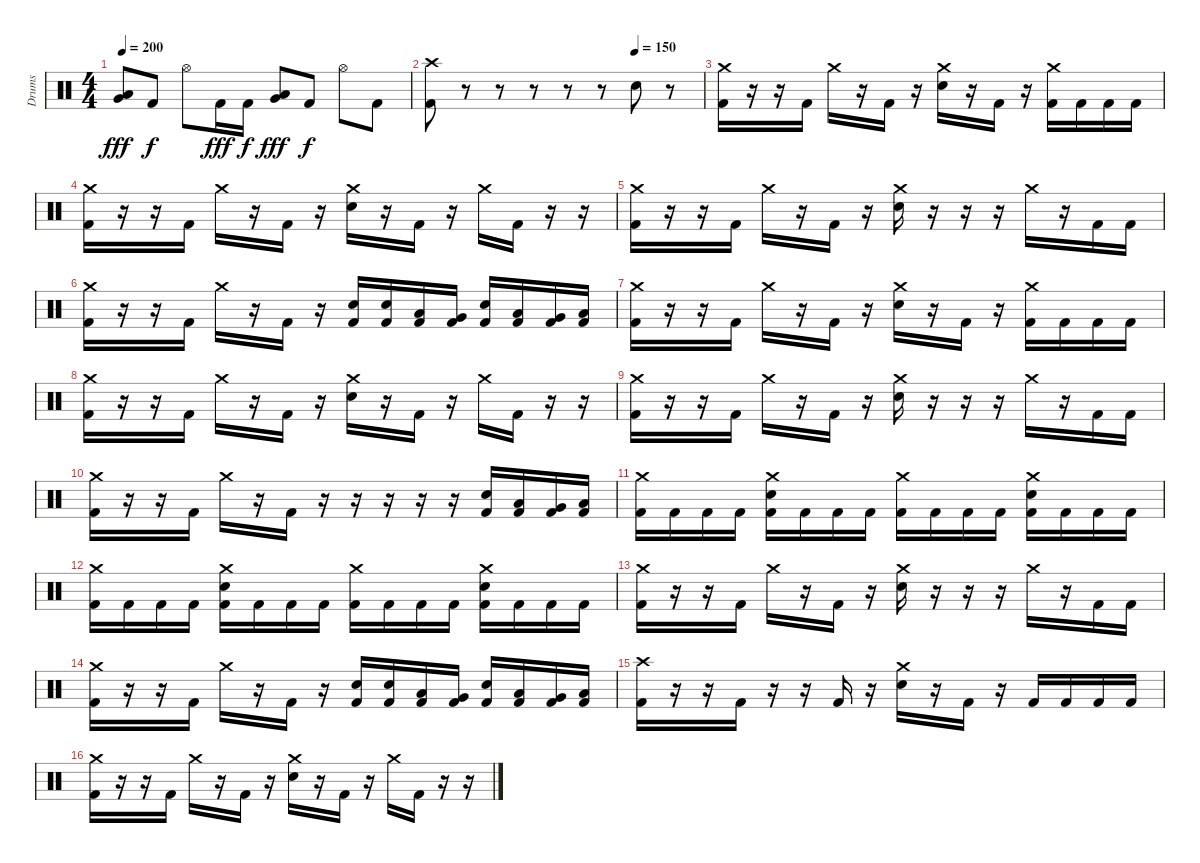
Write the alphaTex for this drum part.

\track ("Drums" "Drums") {instrument percussion}
\staff {score}
\articulation defaults
\ts (4 4)
\tempo 200
\clef neutral
\ks c
("Very Low Tom (hit)" "Low Floor Tom (hit)").8{dy fff} "Kick (hit) 2".8{dy f} "Hi-Hat (open)".8 "Kick (hit) 2".16{dy fff} "Kick (hit) 2".16{dy f} ("Very Low Tom (hit)" "Low Floor Tom (hit)").8{dy fff} "Kick (hit) 2".8{dy f} "Hi-Hat (open)".8 "Kick (hit) 2".8 |
\tempo (150 0.75)
("Crash high (hit)" "Kick (hit) 2").8 r.8 r.8 r.8 r.8 r.8 "Electric Snare (hit)".8 r.8 |
("Crash medium (hit)" "Kick (hit) 2").16 r.16 r.16 "Kick (hit) 2".16 "Crash medium (hit)".16 r.16 "Kick (hit) 2".16 r.16 ("Crash medium (hit)" "Electric Snare (hit)").16 r.16 "Kick (hit) 2".16 r.16 ("Crash medium (hit)" "Kick (hit) 2").16 "Kick (hit) 2".16 "Kick (hit) 2".16 "Kick (hit) 2".16 |
("Crash medium (hit)" "Kick (hit) 2").16 r.16 r.16 "Kick (hit) 2".16 "Crash medium (hit)".16 r.16 "Kick (hit) 2".16 r.16 ("Crash medium (hit)" "Electric Snare (hit)").16 r.16 "Kick (hit) 2".16 r.16 "Crash medium (hit)".16 "Kick (hit) 2".16 r.16 r.16 |
("Crash medium (hit)" "Kick (hit) 2").16 r.16 r.16 "Kick (hit) 2".16 "Crash medium (hit)".16 r.16 "Kick (hit) 2".16 r.16 ("Crash medium (hit)" "Electric Snare (hit)").16 r.16 r.16 r.16 "Crash medium (hit)".16 r.16 "Kick (hit) 2".16 "Kick (hit) 2".16 |
("Crash medium (hit)" "Kick (hit) 2").16 r.16 r.16 "Kick (hit) 2".16 "Crash medium (hit)".16 r.16 "Kick (hit) 2".16 r.16 ("Electric Snare (hit)" "Kick (hit) 2").16 ("Electric Snare (hit)" "Kick (hit) 2").16 ("Low Tom (hit)" "Kick (hit) 2").16 ("Very Low Tom (hit)" "Kick (hit) 2").16 ("Electric Snare (hit)" "Kick (hit) 2").16 ("Low Tom (hit)" "Kick (hit) 2").16 ("Very Low Tom (hit)" "Kick (hit) 2").16 ("Low Floor Tom (hit)" "Kick (hit) 2").16 |
("Crash medium (hit)" "Kick (hit) 2").16 r.16 r.16 "Kick (hit) 2".16 "Crash medium (hit)".16 r.16 "Kick (hit) 2".16 r.16 ("Crash medium (hit)" "Electric Snare (hit)").16 r.16 "Kick (hit) 2".16 r.16 ("Crash medium (hit)" "Kick (hit) 2").16 "Kick (hit) 2".16 "Kick (hit) 2".16 "Kick (hit) 2".16 |
("Crash medium (hit)" "Kick (hit) 2").16 r.16 r.16 "Kick (hit) 2".16 "Crash medium (hit)".16 r.16 "Kick (hit) 2".16 r.16 ("Crash medium (hit)" "Electric Snare (hit)").16 r.16 "Kick (hit) 2".16 r.16 "Crash medium (hit)".16 "Kick (hit) 2".16 r.16 r.16 |
("Crash medium (hit)" "Kick (hit) 2").16 r.16 r.16 "Kick (hit) 2".16 "Crash medium (hit)".16 r.16 "Kick (hit) 2".16 r.16 ("Crash medium (hit)" "Electric Snare (hit)").16 r.16 r.16 r.16 "Crash medium (hit)".16 r.16 "Kick (hit) 2".16 "Kick (hit) 2".16 |
("Crash medium (hit)" "Kick (hit) 2").16 r.16 r.16 "Kick (hit) 2".16 "Crash medium (hit)".16 r.16 "Kick (hit) 2".16 r.16 r.16 r.16 r.16 r.16 ("Electric Snare (hit)" "Kick (hit) 2").16 ("Low Tom (hit)" "Kick (hit) 2").16 ("Very Low Tom (hit)" "Kick (hit) 2").16 ("Low Floor Tom (hit)" "Kick (hit) 2").16 |
("Crash medium (hit)" "Kick (hit) 2").16 "Kick (hit) 2".16 "Kick (hit) 2".16 "Kick (hit) 2".16 ("Crash medium (hit)" "Electric Snare (hit)" "Kick (hit) 2").16 "Kick (hit) 2".16 "Kick (hit) 2".16 "Kick (hit) 2".16 ("Crash medium (hit)" "Kick (hit) 2").16 "Kick (hit) 2".16 "Kick (hit) 2".16 "Kick (hit) 2".16 ("Crash medium (hit)" "Electric Snare (hit)" "Kick (hit) 2").16 "Kick (hit) 2".16 "Kick (hit) 2".16 "Kick (hit) 2".16 |
("Crash medium (hit)" "Kick (hit) 2").16 "Kick (hit) 2".16 "Kick (hit) 2".16 "Kick (hit) 2".16 ("Crash medium (hit)" "Electric Snare (hit)" "Kick (hit) 2").16 "Kick (hit) 2".16 "Kick (hit) 2".16 "Kick (hit) 2".16 ("Crash medium (hit)" "Kick (hit) 2").16 "Kick (hit) 2".16 "Kick (hit) 2".16 "Kick (hit) 2".16 ("Crash medium (hit)" "Electric Snare (hit)" "Kick (hit) 2").16 "Kick (hit) 2".16 "Kick (hit) 2".16 "Kick (hit) 2".16 |
("Crash medium (hit)" "Kick (hit) 2").16 r.16 r.16 "Kick (hit) 2".16 "Crash medium (hit)".16 r.16 "Kick (hit) 2".16 r.16 ("Crash medium (hit)" "Electric Snare (hit)").16 r.16 r.16 r.16 "Crash medium (hit)".16 r.16 "Kick (hit) 2".16 "Kick (hit) 2".16 |
("Crash medium (hit)" "Kick (hit) 2").16 r.16 r.16 "Kick (hit) 2".16 "Crash medium (hit)".16 r.16 "Kick (hit) 2".16 r.16 ("Electric Snare (hit)" "Kick (hit) 2").16 ("Electric Snare (hit)" "Kick (hit) 2").16 ("Low Tom (hit)" "Kick (hit) 2").16 ("Very Low Tom (hit)" "Kick (hit) 2").16 ("Electric Snare (hit)" "Kick (hit) 2").16 ("Low Tom (hit)" "Kick (hit) 2").16 ("Very Low Tom (hit)" "Kick (hit) 2").16 ("Low Floor Tom (hit)" "Kick (hit) 2").16 |
("Crash high (hit)" "Kick (hit) 2").16 r.16 r.16 "Kick (hit) 2".16 r.16 r.16 "Kick (hit) 2".16 r.16 ("Crash medium (hit)" "Electric Snare (hit)").16 r.16 "Kick (hit) 2".16 r.16 "Kick (hit) 2".16 "Kick (hit) 2".16 "Kick (hit) 2".16 "Kick (hit) 2".16 |
("Crash medium (hit)" "Kick (hit) 2").16 r.16 r.16 "Kick (hit) 2".16 "Crash medium (hit)".16 r.16 "Kick (hit) 2".16 r.16 ("Crash medium (hit)" "Electric Snare (hit)").16 r.16 "Kick (hit) 2".16 r.16 "Crash medium (hit)".16 "Kick (hit) 2".16 r.16 r.16
